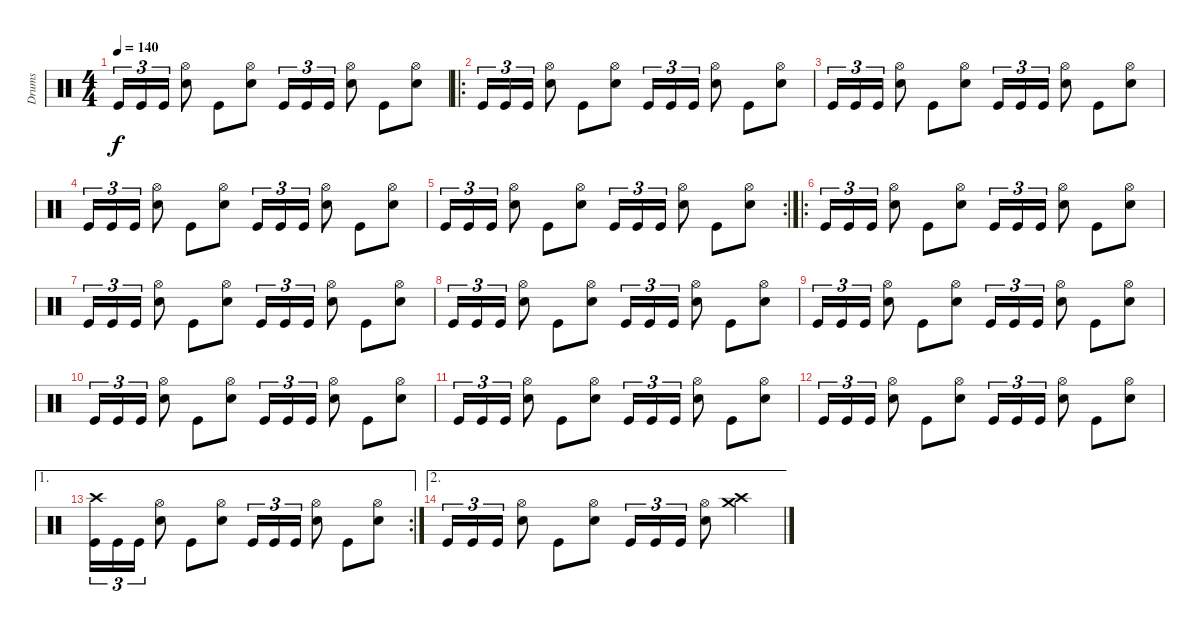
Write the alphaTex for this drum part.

\track ("Drums" "Drums") {instrument percussion}
\staff {score}
\articulation defaults
\ts (4 4)
\tempo 140
\clef neutral
\ks c "Kick (hit)".16{tu (3 2) dy f} "Kick (hit)".16{tu (3 2)} "Kick (hit)".16{tu (3 2)}
("Electric Snare (hit)" "Hi-Hat (open)").8 "Kick (hit)".8 ("Electric Snare (hit)" "Hi-Hat (open)").8 "Kick (hit)".16{tu (3 2)} "Kick (hit)".16{tu (3 2)} "Kick (hit)".16{tu (3 2)} ("Electric Snare (hit)" "Hi-Hat (open)").8 "Kick (hit)".8 ("Electric Snare (hit)" "Hi-Hat (open)").8 |
\ro "Kick (hit)".16{tu (3 2)} "Kick (hit)".16{tu (3 2)} "Kick (hit)".16{tu (3 2)}
("Electric Snare (hit)" "Hi-Hat (open)").8 "Kick (hit)".8 ("Electric Snare (hit)" "Hi-Hat (open)").8 "Kick (hit)".16{tu (3 2)} "Kick (hit)".16{tu (3 2)} "Kick (hit)".16{tu (3 2)} ("Electric Snare (hit)" "Hi-Hat (open)").8 "Kick (hit)".8 ("Electric Snare (hit)" "Hi-Hat (open)").8 |
"Kick (hit)".16{tu (3 2)} "Kick (hit)".16{tu (3 2)} "Kick (hit)".16{tu (3 2)} ("Electric Snare (hit)" "Hi-Hat (open)").8 "Kick (hit)".8 ("Electric Snare (hit)" "Hi-Hat (open)").8 "Kick (hit)".16{tu (3 2)} "Kick (hit)".16{tu (3 2)} "Kick (hit)".16{tu (3 2)} ("Electric Snare (hit)" "Hi-Hat (open)").8 "Kick (hit)".8 ("Electric Snare (hit)" "Hi-Hat (open)").8 |
"Kick (hit)".16{tu (3 2)} "Kick (hit)".16{tu (3 2)} "Kick (hit)".16{tu (3 2)} ("Electric Snare (hit)" "Hi-Hat (open)").8 "Kick (hit)".8 ("Electric Snare (hit)" "Hi-Hat (open)").8 "Kick (hit)".16{tu (3 2)} "Kick (hit)".16{tu (3 2)} "Kick (hit)".16{tu (3 2)} ("Electric Snare (hit)" "Hi-Hat (open)").8 "Kick (hit)".8 ("Electric Snare (hit)" "Hi-Hat (open)").8 |
\rc 2 "Kick (hit)".16{tu (3 2)} "Kick (hit)".16{tu (3 2)} "Kick (hit)".16{tu (3 2)}
("Electric Snare (hit)" "Hi-Hat (open)").8 "Kick (hit)".8 ("Electric Snare (hit)" "Hi-Hat (open)").8 "Kick (hit)".16{tu (3 2)} "Kick (hit)".16{tu (3 2)} "Kick (hit)".16{tu (3 2)} ("Electric Snare (hit)" "Hi-Hat (open)").8 "Kick (hit)".8 ("Electric Snare (hit)" "Hi-Hat (open)").8 |
\ro "Kick (hit)".16{tu (3 2)} "Kick (hit)".16{tu (3 2)} "Kick (hit)".16{tu (3 2)}
("Electric Snare (hit)" "Hi-Hat (open)").8 "Kick (hit)".8 ("Electric Snare (hit)" "Hi-Hat (open)").8 "Kick (hit)".16{tu (3 2)} "Kick (hit)".16{tu (3 2)} "Kick (hit)".16{tu (3 2)} ("Electric Snare (hit)" "Hi-Hat (open)").8 "Kick (hit)".8 ("Electric Snare (hit)" "Hi-Hat (open)").8 |
"Kick (hit)".16{tu (3 2)} "Kick (hit)".16{tu (3 2)} "Kick (hit)".16{tu (3 2)} ("Electric Snare (hit)" "Hi-Hat (open)").8 "Kick (hit)".8 ("Electric Snare (hit)" "Hi-Hat (open)").8 "Kick (hit)".16{tu (3 2)} "Kick (hit)".16{tu (3 2)} "Kick (hit)".16{tu (3 2)} ("Electric Snare (hit)" "Hi-Hat (open)").8 "Kick (hit)".8 ("Electric Snare (hit)" "Hi-Hat (open)").8 |
"Kick (hit)".16{tu (3 2)} "Kick (hit)".16{tu (3 2)} "Kick (hit)".16{tu (3 2)} ("Electric Snare (hit)" "Hi-Hat (open)").8 "Kick (hit)".8 ("Electric Snare (hit)" "Hi-Hat (open)").8 "Kick (hit)".16{tu (3 2)} "Kick (hit)".16{tu (3 2)} "Kick (hit)".16{tu (3 2)} ("Electric Snare (hit)" "Hi-Hat (open)").8 "Kick (hit)".8 ("Electric Snare (hit)" "Hi-Hat (open)").8 |
"Kick (hit)".16{tu (3 2)} "Kick (hit)".16{tu (3 2)} "Kick (hit)".16{tu (3 2)} ("Electric Snare (hit)" "Hi-Hat (open)").8 "Kick (hit)".8 ("Electric Snare (hit)" "Hi-Hat (open)").8 "Kick (hit)".16{tu (3 2)} "Kick (hit)".16{tu (3 2)} "Kick (hit)".16{tu (3 2)} ("Electric Snare (hit)" "Hi-Hat (open)").8 "Kick (hit)".8 ("Electric Snare (hit)" "Hi-Hat (open)").8 |
"Kick (hit)".16{tu (3 2)} "Kick (hit)".16{tu (3 2)} "Kick (hit)".16{tu (3 2)} ("Electric Snare (hit)" "Hi-Hat (open)").8 "Kick (hit)".8 ("Electric Snare (hit)" "Hi-Hat (open)").8 "Kick (hit)".16{tu (3 2)} "Kick (hit)".16{tu (3 2)} "Kick (hit)".16{tu (3 2)} ("Electric Snare (hit)" "Hi-Hat (open)").8 "Kick (hit)".8 ("Electric Snare (hit)" "Hi-Hat (open)").8 |
"Kick (hit)".16{tu (3 2)} "Kick (hit)".16{tu (3 2)} "Kick (hit)".16{tu (3 2)} ("Electric Snare (hit)" "Hi-Hat (open)").8 "Kick (hit)".8 ("Electric Snare (hit)" "Hi-Hat (open)").8 "Kick (hit)".16{tu (3 2)} "Kick (hit)".16{tu (3 2)} "Kick (hit)".16{tu (3 2)} ("Electric Snare (hit)" "Hi-Hat (open)").8 "Kick (hit)".8 ("Electric Snare (hit)" "Hi-Hat (open)").8 |
"Kick (hit)".16{tu (3 2)} "Kick (hit)".16{tu (3 2)} "Kick (hit)".16{tu (3 2)} ("Electric Snare (hit)" "Hi-Hat (open)").8 "Kick (hit)".8 ("Electric Snare (hit)" "Hi-Hat (open)").8 "Kick (hit)".16{tu (3 2)} "Kick (hit)".16{tu (3 2)} "Kick (hit)".16{tu (3 2)} ("Electric Snare (hit)" "Hi-Hat (open)").8 "Kick (hit)".8 ("Electric Snare (hit)" "Hi-Hat (open)").8 |
\ae 1
\rc 2
("Kick (hit)" "Crash high (hit)").16{tu (3 2)} "Kick (hit)".16{tu (3 2)} "Kick (hit)".16{tu (3 2)} ("Electric Snare (hit)" "Hi-Hat (open)").8 "Kick (hit)".8 ("Electric Snare (hit)" "Hi-Hat (open)").8 "Kick (hit)".16{tu (3 2)} "Kick (hit)".16{tu (3 2)} "Kick (hit)".16{tu (3 2)} ("Electric Snare (hit)" "Hi-Hat (open)").8 "Kick (hit)".8 ("Electric Snare (hit)" "Hi-Hat (open)").8 |
\ae 2 "Kick (hit)".16{tu (3 2)} "Kick (hit)".16{tu (3 2)} "Kick (hit)".16{tu (3 2)}
("Electric Snare (hit)" "Hi-Hat (open)").8 "Kick (hit)".8 ("Electric Snare (hit)" "Hi-Hat (open)").8 "Kick (hit)".16{tu (3 2)} "Kick (hit)".16{tu (3 2)} "Kick (hit)".16{tu (3 2)} ("Electric Snare (hit)" "Hi-Hat (open)").8 ("Crash high (hit)" "Crash medium (hit)").4
